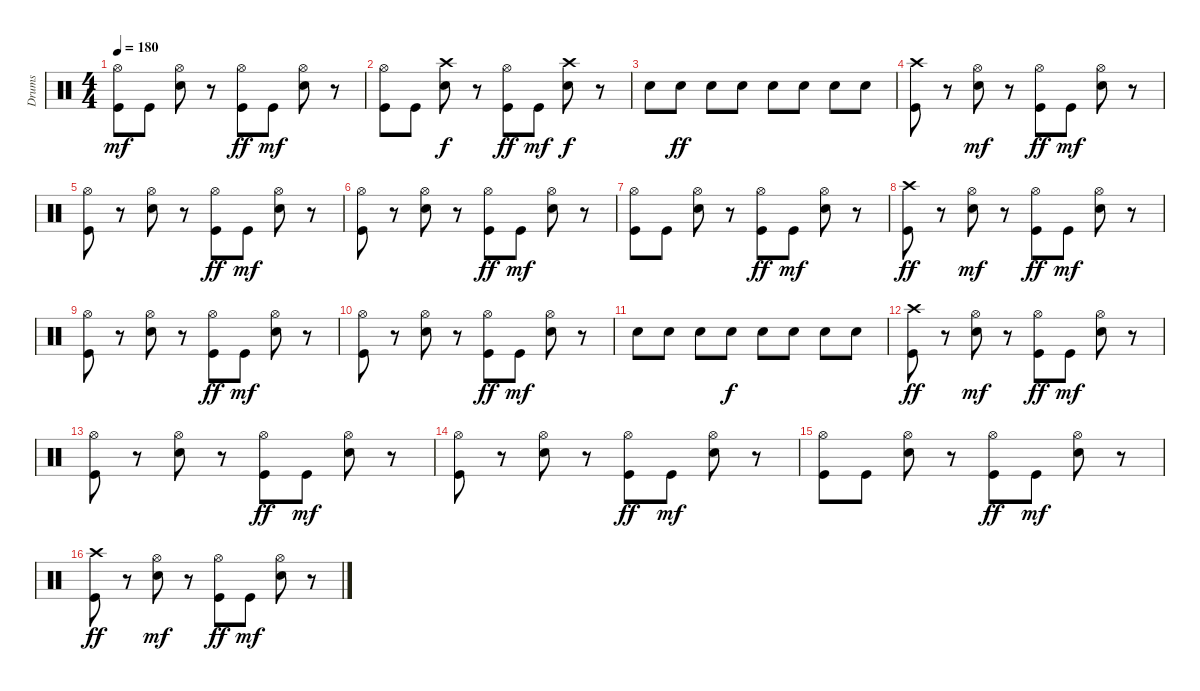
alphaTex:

\track ("Drums" "Drums") {instrument percussion}
\staff {score}
\articulation defaults
\ts (4 4)
\tempo 180
\clef neutral
\ks c
("Kick (hit)" "Hi-Hat (open)").8{dy mf} "Kick (hit)".8 ("Hi-Hat (open)" "Snare (hit) 2").8 r.8 ("Hi-Hat (open)" "Kick (hit)").8{dy ff} "Kick (hit)".8{dy mf} ("Hi-Hat (open)" "Snare (hit) 2").8 r.8 |
("Kick (hit)" "Hi-Hat (open)").8 "Kick (hit)".8 ("Crash high (hit)" "Snare (hit) 2").8{dy f} r.8 ("Hi-Hat (open)" "Kick (hit)").8{dy ff} "Kick (hit)".8{dy mf} ("Crash high (hit)" "Snare (hit) 2").8{dy f} r.8 |
"Snare (hit) 2".8 "Snare (hit) 2".8{dy ff} "Snare (hit) 2".8 "Snare (hit) 2".8 "Snare (hit) 2".8 "Snare (hit) 2".8 "Snare (hit) 2".8 "Snare (hit) 2".8 |
("Crash high (hit)" "Kick (hit)").8 r.8 ("Hi-Hat (open)" "Snare (hit) 2").8{dy mf} r.8 ("Hi-Hat (open)" "Kick (hit)").8{dy ff} "Kick (hit)".8{dy mf} ("Hi-Hat (open)" "Snare (hit) 2").8 r.8 |
("Kick (hit)" "Hi-Hat (open)").8 r.8 ("Hi-Hat (open)" "Snare (hit) 2").8 r.8 ("Hi-Hat (open)" "Kick (hit)").8{dy ff} "Kick (hit)".8{dy mf} ("Snare (hit) 2" "Hi-Hat (open)").8 r.8 |
("Kick (hit)" "Hi-Hat (open)").8 r.8 ("Hi-Hat (open)" "Snare (hit) 2").8 r.8 ("Hi-Hat (open)" "Kick (hit)").8{dy ff} "Kick (hit)".8{dy mf} ("Snare (hit) 2" "Hi-Hat (open)").8 r.8 |
("Kick (hit)" "Hi-Hat (open)").8 "Kick (hit)".8 ("Hi-Hat (open)" "Snare (hit) 2").8 r.8 ("Hi-Hat (open)" "Kick (hit)").8{dy ff} "Kick (hit)".8{dy mf} ("Hi-Hat (open)" "Snare (hit) 2").8 r.8 |
("Crash high (hit)" "Kick (hit)").8{dy ff} r.8 ("Hi-Hat (open)" "Snare (hit) 2").8{dy mf} r.8 ("Hi-Hat (open)" "Kick (hit)").8{dy ff} "Kick (hit)".8{dy mf} ("Hi-Hat (open)" "Snare (hit) 2").8 r.8 |
("Kick (hit)" "Hi-Hat (open)").8 r.8 ("Hi-Hat (open)" "Snare (hit) 2").8 r.8 ("Hi-Hat (open)" "Kick (hit)").8{dy ff} "Kick (hit)".8{dy mf} ("Snare (hit) 2" "Hi-Hat (open)").8 r.8 |
("Kick (hit)" "Hi-Hat (open)").8 r.8 ("Hi-Hat (open)" "Snare (hit) 2").8 r.8 ("Hi-Hat (open)" "Kick (hit)").8{dy ff} "Kick (hit)".8{dy mf} ("Snare (hit) 2" "Hi-Hat (open)").8 r.8 |
"Snare (hit) 2".8 "Snare (hit) 2".8 "Snare (hit) 2".8 "Snare (hit) 2".8{dy f} "Snare (hit) 2".8 "Snare (hit) 2".8 "Snare (hit) 2".8 "Snare (hit) 2".8 |
("Crash high (hit)" "Kick (hit)").8{dy ff} r.8 ("Hi-Hat (open)" "Snare (hit) 2").8{dy mf} r.8 ("Hi-Hat (open)" "Kick (hit)").8{dy ff} "Kick (hit)".8{dy mf} ("Hi-Hat (open)" "Snare (hit) 2").8 r.8 |
("Kick (hit)" "Hi-Hat (open)").8 r.8 ("Hi-Hat (open)" "Snare (hit) 2").8 r.8 ("Hi-Hat (open)" "Kick (hit)").8{dy ff} "Kick (hit)".8{dy mf} ("Snare (hit) 2" "Hi-Hat (open)").8 r.8 |
("Kick (hit)" "Hi-Hat (open)").8 r.8 ("Hi-Hat (open)" "Snare (hit) 2").8 r.8 ("Hi-Hat (open)" "Kick (hit)").8{dy ff} "Kick (hit)".8{dy mf} ("Snare (hit) 2" "Hi-Hat (open)").8 r.8 |
("Kick (hit)" "Hi-Hat (open)").8 "Kick (hit)".8 ("Hi-Hat (open)" "Snare (hit) 2").8 r.8 ("Hi-Hat (open)" "Kick (hit)").8{dy ff} "Kick (hit)".8{dy mf} ("Hi-Hat (open)" "Snare (hit) 2").8 r.8 |
("Crash high (hit)" "Kick (hit)").8{dy ff} r.8 ("Hi-Hat (open)" "Snare (hit) 2").8{dy mf} r.8 ("Hi-Hat (open)" "Kick (hit)").8{dy ff} "Kick (hit)".8{dy mf} ("Hi-Hat (open)" "Snare (hit) 2").8 r.8
